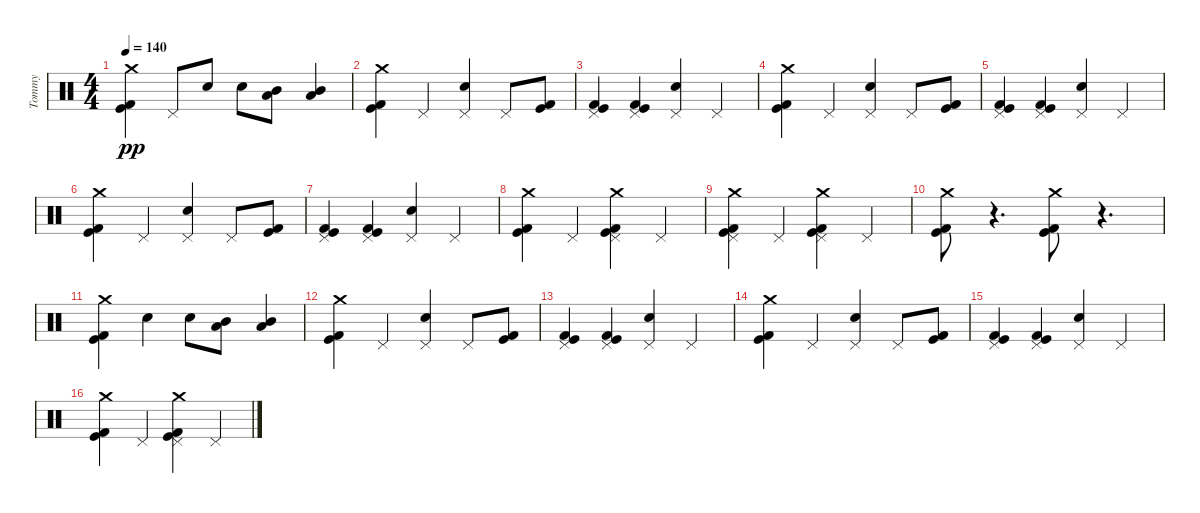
\track ("Tommy" "Tommy") {instrument percussion}
\staff {score}
\articulation defaults
\ts (4 4)
\tempo 140
\clef neutral
\ks c
("Crash medium (hit)" "Kick (hit)" "Kick (hit) 2").4{dy pp} "Pedal Hi-Hat (hit)".8 "Snare (hit) 2".8 "Snare (hit) 2".8 ("Mid Tom (hit)" "Low Tom (hit)").8 ("Low Tom (hit)" "Mid Tom (hit)").4 |
("Kick (hit)" "Crash medium (hit)" "Kick (hit) 2").4 "Pedal Hi-Hat (hit)".4 ("Pedal Hi-Hat (hit)" "Snare (hit) 2").4 "Pedal Hi-Hat (hit)".8 ("Kick (hit)" "Kick (hit) 2").8 |
("Pedal Hi-Hat (hit)" "Kick (hit)" "Kick (hit) 2").4 ("Pedal Hi-Hat (hit)" "Kick (hit)" "Kick (hit) 2").4 ("Snare (hit) 2" "Pedal Hi-Hat (hit)").4 "Pedal Hi-Hat (hit)".4 |
("Kick (hit)" "Crash medium (hit)" "Kick (hit) 2").4 "Pedal Hi-Hat (hit)".4 ("Pedal Hi-Hat (hit)" "Snare (hit) 2").4 "Pedal Hi-Hat (hit)".8 ("Kick (hit)" "Kick (hit) 2").8 |
("Pedal Hi-Hat (hit)" "Kick (hit)" "Kick (hit) 2").4 ("Pedal Hi-Hat (hit)" "Kick (hit)" "Kick (hit) 2").4 ("Snare (hit) 2" "Pedal Hi-Hat (hit)").4 "Pedal Hi-Hat (hit)".4 |
("Kick (hit)" "Crash medium (hit)" "Kick (hit) 2").4 "Pedal Hi-Hat (hit)".4 ("Pedal Hi-Hat (hit)" "Snare (hit) 2").4 "Pedal Hi-Hat (hit)".8 ("Kick (hit)" "Kick (hit) 2").8 |
("Pedal Hi-Hat (hit)" "Kick (hit)" "Kick (hit) 2").4 ("Pedal Hi-Hat (hit)" "Kick (hit)" "Kick (hit) 2").4 ("Snare (hit) 2" "Pedal Hi-Hat (hit)").4 "Pedal Hi-Hat (hit)".4 |
("Kick (hit)" "Crash medium (hit)" "Kick (hit) 2").4 "Pedal Hi-Hat (hit)".4 ("Crash medium (hit)" "Kick (hit) 2" "Kick (hit)" "Pedal Hi-Hat (hit)").4 "Pedal Hi-Hat (hit)".4 |
("Crash medium (hit)" "Pedal Hi-Hat (hit)" "Kick (hit)" "Kick (hit) 2").4 "Pedal Hi-Hat (hit)".4 ("Crash medium (hit)" "Kick (hit) 2" "Kick (hit)" "Pedal Hi-Hat (hit)").4 "Pedal Hi-Hat (hit)".4 |
("Crash medium (hit)" "Kick (hit) 2" "Kick (hit)").8 r.4{d} ("Crash medium (hit)" "Kick (hit)" "Kick (hit) 2").8 r.4{d} |
("Crash medium (hit)" "Kick (hit)" "Kick (hit) 2").4 "Snare (hit) 2".4 "Snare (hit) 2".8 ("Low Tom (hit)" "Mid Tom (hit)").8 ("Low Tom (hit)" "Mid Tom (hit)").4 |
("Kick (hit)" "Crash medium (hit)" "Kick (hit) 2").4 "Pedal Hi-Hat (hit)".4 ("Pedal Hi-Hat (hit)" "Snare (hit) 2").4 "Pedal Hi-Hat (hit)".8 ("Kick (hit)" "Kick (hit) 2").8 |
("Pedal Hi-Hat (hit)" "Kick (hit)" "Kick (hit) 2").4 ("Pedal Hi-Hat (hit)" "Kick (hit)" "Kick (hit) 2").4 ("Snare (hit) 2" "Pedal Hi-Hat (hit)").4 "Pedal Hi-Hat (hit)".4 |
("Kick (hit)" "Crash medium (hit)" "Kick (hit) 2").4 "Pedal Hi-Hat (hit)".4 ("Pedal Hi-Hat (hit)" "Snare (hit) 2").4 "Pedal Hi-Hat (hit)".8 ("Kick (hit)" "Kick (hit) 2").8 |
("Pedal Hi-Hat (hit)" "Kick (hit)" "Kick (hit) 2").4 ("Pedal Hi-Hat (hit)" "Kick (hit)" "Kick (hit) 2").4 ("Snare (hit) 2" "Pedal Hi-Hat (hit)").4 "Pedal Hi-Hat (hit)".4 |
("Kick (hit)" "Crash medium (hit)" "Kick (hit) 2").4 "Pedal Hi-Hat (hit)".4 ("Crash medium (hit)" "Kick (hit) 2" "Kick (hit)" "Pedal Hi-Hat (hit)").4 "Pedal Hi-Hat (hit)".4
